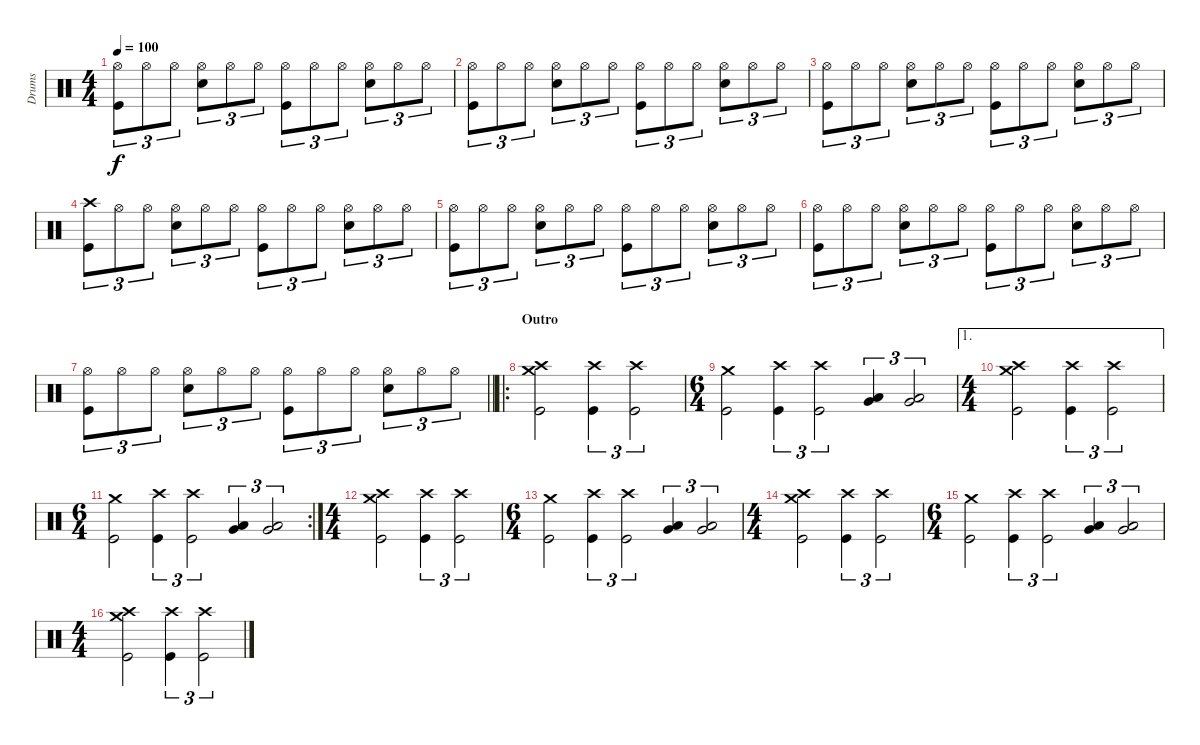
\track ("Drums" "Drums") {instrument percussion}
\staff {score}
\articulation defaults
\ts (4 4)
\tempo 100
\clef neutral
\ks c
("Hi-Hat (open)" "Kick (hit)").8{tu (3 2) dy f} "Hi-Hat (open)".8{tu (3 2)} "Hi-Hat (open)".8{tu (3 2)} ("Hi-Hat (open)" "Snare (hit) 2").8{tu (3 2)} "Hi-Hat (open)".8{tu (3 2)} "Hi-Hat (open)".8{tu (3 2)} ("Hi-Hat (open)" "Kick (hit)").8{tu (3 2)} "Hi-Hat (open)".8{tu (3 2)} "Hi-Hat (open)".8{tu (3 2)} ("Hi-Hat (open)" "Snare (hit) 2").8{tu (3 2)} "Hi-Hat (open)".8{tu (3 2)} "Hi-Hat (open)".8{tu (3 2)} |
("Hi-Hat (open)" "Kick (hit)").8{tu (3 2)} "Hi-Hat (open)".8{tu (3 2)} "Hi-Hat (open)".8{tu (3 2)} ("Hi-Hat (open)" "Snare (hit) 2").8{tu (3 2)} "Hi-Hat (open)".8{tu (3 2)} "Hi-Hat (open)".8{tu (3 2)} ("Hi-Hat (open)" "Kick (hit)").8{tu (3 2)} "Hi-Hat (open)".8{tu (3 2)} "Hi-Hat (open)".8{tu (3 2)} ("Hi-Hat (open)" "Snare (hit) 2").8{tu (3 2)} "Hi-Hat (open)".8{tu (3 2)} "Hi-Hat (open)".8{tu (3 2)} |
("Hi-Hat (open)" "Kick (hit)").8{tu (3 2)} "Hi-Hat (open)".8{tu (3 2)} "Hi-Hat (open)".8{tu (3 2)} ("Hi-Hat (open)" "Snare (hit) 2").8{tu (3 2)} "Hi-Hat (open)".8{tu (3 2)} "Hi-Hat (open)".8{tu (3 2)} ("Hi-Hat (open)" "Kick (hit)").8{tu (3 2)} "Hi-Hat (open)".8{tu (3 2)} "Hi-Hat (open)".8{tu (3 2)} ("Hi-Hat (open)" "Snare (hit) 2").8{tu (3 2)} "Hi-Hat (open)".8{tu (3 2)} "Hi-Hat (open)".8{tu (3 2)} |
("Crash high (hit)" "Kick (hit)").8{tu (3 2)} "Hi-Hat (open)".8{tu (3 2)} "Hi-Hat (open)".8{tu (3 2)} ("Hi-Hat (open)" "Snare (hit) 2").8{tu (3 2)} "Hi-Hat (open)".8{tu (3 2)} "Hi-Hat (open)".8{tu (3 2)} ("Hi-Hat (open)" "Kick (hit)").8{tu (3 2)} "Hi-Hat (open)".8{tu (3 2)} "Hi-Hat (open)".8{tu (3 2)} ("Hi-Hat (open)" "Snare (hit) 2").8{tu (3 2)} "Hi-Hat (open)".8{tu (3 2)} "Hi-Hat (open)".8{tu (3 2)} |
("Hi-Hat (open)" "Kick (hit)").8{tu (3 2)} "Hi-Hat (open)".8{tu (3 2)} "Hi-Hat (open)".8{tu (3 2)} ("Hi-Hat (open)" "Snare (hit) 2").8{tu (3 2)} "Hi-Hat (open)".8{tu (3 2)} "Hi-Hat (open)".8{tu (3 2)} ("Hi-Hat (open)" "Kick (hit)").8{tu (3 2)} "Hi-Hat (open)".8{tu (3 2)} "Hi-Hat (open)".8{tu (3 2)} ("Hi-Hat (open)" "Snare (hit) 2").8{tu (3 2)} "Hi-Hat (open)".8{tu (3 2)} "Hi-Hat (open)".8{tu (3 2)} |
("Hi-Hat (open)" "Kick (hit)").8{tu (3 2)} "Hi-Hat (open)".8{tu (3 2)} "Hi-Hat (open)".8{tu (3 2)} ("Hi-Hat (open)" "Snare (hit) 2").8{tu (3 2)} "Hi-Hat (open)".8{tu (3 2)} "Hi-Hat (open)".8{tu (3 2)} ("Hi-Hat (open)" "Kick (hit)").8{tu (3 2)} "Hi-Hat (open)".8{tu (3 2)} "Hi-Hat (open)".8{tu (3 2)} ("Hi-Hat (open)" "Snare (hit) 2").8{tu (3 2)} "Hi-Hat (open)".8{tu (3 2)} "Hi-Hat (open)".8{tu (3 2)} |
\barLineRight lightlight
("Hi-Hat (open)" "Kick (hit)").8{tu (3 2)} "Hi-Hat (open)".8{tu (3 2)} "Hi-Hat (open)".8{tu (3 2)} ("Hi-Hat (open)" "Snare (hit) 2").8{tu (3 2)} "Hi-Hat (open)".8{tu (3 2)} "Hi-Hat (open)".8{tu (3 2)} ("Hi-Hat (open)" "Kick (hit)").8{tu (3 2)} "Hi-Hat (open)".8{tu (3 2)} "Hi-Hat (open)".8{tu (3 2)} ("Hi-Hat (open)" "Snare (hit) 2").8{tu (3 2)} "Hi-Hat (open)".8{tu (3 2)} "Hi-Hat (open)".8{tu (3 2)} |
\ro
\section ("" "Outro")
("Crash high (hit)" "Crash medium (hit)" "Kick (hit)").2 ("Crash high (hit)" "Kick (hit)").4{tu (3 2)} ("Crash high (hit)" "Kick (hit)").2{tu (3 2)} |
\ts (6 4)
("Crash medium (hit)" "Kick (hit)").2 ("Crash high (hit)" "Kick (hit)").4{tu (3 2)} ("Crash high (hit)" "Kick (hit)").2{tu (3 2)} ("Low Tom (hit)" "Very Low Tom (hit)").4{tu (3 2)} ("Low Tom (hit)" "Very Low Tom (hit)").2{tu (3 2)} |
\ae 1
\ts (4 4)
("Crash high (hit)" "Crash medium (hit)" "Kick (hit)").2 ("Crash high (hit)" "Kick (hit)").4{tu (3 2)} ("Crash high (hit)" "Kick (hit)").2{tu (3 2)} |
\rc 2
\ts (6 4)
("Crash medium (hit)" "Kick (hit)").2 ("Crash high (hit)" "Kick (hit)").4{tu (3 2)} ("Crash high (hit)" "Kick (hit)").2{tu (3 2)} ("Low Tom (hit)" "Very Low Tom (hit)").4{tu (3 2)} ("Low Tom (hit)" "Very Low Tom (hit)").2{tu (3 2)} |
\ts (4 4)
("Crash high (hit)" "Crash medium (hit)" "Kick (hit)").2 ("Crash high (hit)" "Kick (hit)").4{tu (3 2)} ("Crash high (hit)" "Kick (hit)").2{tu (3 2)} |
\ts (6 4)
("Crash medium (hit)" "Kick (hit)").2 ("Crash high (hit)" "Kick (hit)").4{tu (3 2)} ("Crash high (hit)" "Kick (hit)").2{tu (3 2)} ("Low Tom (hit)" "Very Low Tom (hit)").4{tu (3 2)} ("Low Tom (hit)" "Very Low Tom (hit)").2{tu (3 2)} |
\ts (4 4)
("Crash high (hit)" "Crash medium (hit)" "Kick (hit)").2 ("Crash high (hit)" "Kick (hit)").4{tu (3 2)} ("Crash high (hit)" "Kick (hit)").2{tu (3 2)} |
\ts (6 4)
("Crash medium (hit)" "Kick (hit)").2 ("Crash high (hit)" "Kick (hit)").4{tu (3 2)} ("Crash high (hit)" "Kick (hit)").2{tu (3 2)} ("Low Tom (hit)" "Very Low Tom (hit)").4{tu (3 2)} ("Low Tom (hit)" "Very Low Tom (hit)").2{tu (3 2)} |
\ts (4 4)
("Crash high (hit)" "Crash medium (hit)" "Kick (hit)").2 ("Crash high (hit)" "Kick (hit)").4{tu (3 2)} ("Crash high (hit)" "Kick (hit)").2{tu (3 2)}
